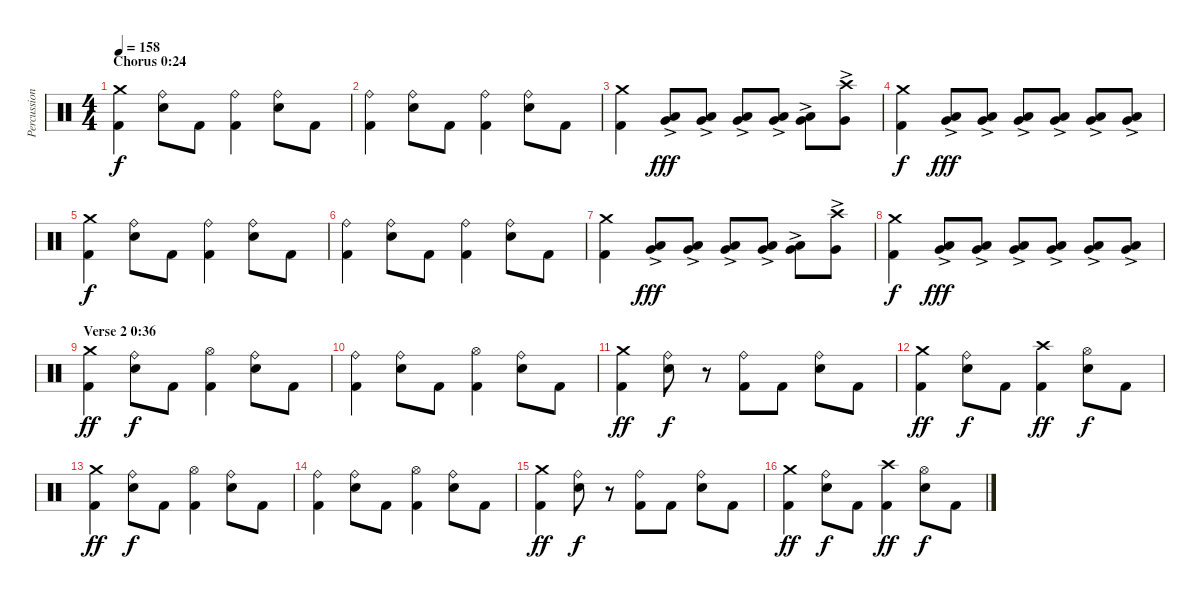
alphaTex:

\track ("Percussion" "Percussion") {instrument percussion}
\staff {score}
\articulation defaults
\ts (4 4)
\section ("" "Chorus 0:24")
\tempo 158
\clef neutral
\ks c
("Kick (hit) 2" "Crash medium (hit)").4{dy f} ("Electric Snare (hit)" "Ride (bell)").8 "Kick (hit) 2".8 ("Kick (hit) 2" "Ride (bell)").4 ("Electric Snare (hit)" "Ride (bell)").8 "Kick (hit) 2".8 |
("Kick (hit) 2" "Ride (bell)").4 ("Electric Snare (hit)" "Ride (bell)").8 "Kick (hit) 2".8 ("Kick (hit) 2" "Ride (bell)").4 ("Electric Snare (hit)" "Ride (bell)").8 "Kick (hit) 2".8 |
("Kick (hit) 2" "Crash medium (hit)").4 ("Low Tom (hit)"{ac} "Very Low Tom (hit)"{ac}).8{dy fff} ("Low Tom (hit)"{ac} "Very Low Tom (hit)"{ac}).8 ("Low Tom (hit)"{ac} "Very Low Tom (hit)"{ac}).8 ("Low Tom (hit)"{ac} "Very Low Tom (hit)"{ac}).8 ("Low Tom (hit)"{ac} "Very Low Tom (hit)"{ac}).8 ("Very Low Tom (hit)"{ac} "Crash high (hit)").8 |
("Kick (hit) 2" "Crash medium (hit)").4{dy f} ("Low Tom (hit)"{ac} "Very Low Tom (hit)"{ac}).8{dy fff} ("Low Tom (hit)"{ac} "Very Low Tom (hit)"{ac}).8 ("Low Tom (hit)"{ac} "Very Low Tom (hit)"{ac}).8 ("Low Tom (hit)"{ac} "Very Low Tom (hit)"{ac}).8 ("Low Tom (hit)"{ac} "Very Low Tom (hit)"{ac}).8 ("Low Tom (hit)"{ac} "Very Low Tom (hit)"{ac}).8 |
("Kick (hit) 2" "Crash medium (hit)").4{dy f} ("Electric Snare (hit)" "Ride (bell)").8 "Kick (hit) 2".8 ("Kick (hit) 2" "Ride (bell)").4 ("Electric Snare (hit)" "Ride (bell)").8 "Kick (hit) 2".8 |
("Kick (hit) 2" "Ride (bell)").4 ("Electric Snare (hit)" "Ride (bell)").8 "Kick (hit) 2".8 ("Kick (hit) 2" "Ride (bell)").4 ("Electric Snare (hit)" "Ride (bell)").8 "Kick (hit) 2".8 |
("Kick (hit) 2" "Crash medium (hit)").4 ("Low Tom (hit)"{ac} "Very Low Tom (hit)"{ac}).8{dy fff} ("Low Tom (hit)"{ac} "Very Low Tom (hit)"{ac}).8 ("Low Tom (hit)"{ac} "Very Low Tom (hit)"{ac}).8 ("Low Tom (hit)"{ac} "Very Low Tom (hit)"{ac}).8 ("Low Tom (hit)"{ac} "Very Low Tom (hit)"{ac}).8 ("Very Low Tom (hit)"{ac} "Crash high (hit)").8 |
("Kick (hit) 2" "Crash medium (hit)").4{dy f} ("Low Tom (hit)"{ac} "Very Low Tom (hit)"{ac}).8{dy fff} ("Low Tom (hit)"{ac} "Very Low Tom (hit)"{ac}).8 ("Low Tom (hit)"{ac} "Very Low Tom (hit)"{ac}).8 ("Low Tom (hit)"{ac} "Very Low Tom (hit)"{ac}).8 ("Low Tom (hit)"{ac} "Very Low Tom (hit)"{ac}).8 ("Low Tom (hit)"{ac} "Very Low Tom (hit)"{ac}).8 |
\section ("" "Verse 2 0:36")
("Kick (hit) 2" "Crash medium (hit)").4{dy ff} ("Electric Snare (hit)" "Ride (bell)").8{dy f} "Kick (hit) 2".8 ("Kick (hit) 2" "Hi-Hat (open)").4 ("Electric Snare (hit)" "Ride (bell)").8 "Kick (hit) 2".8 |
("Kick (hit) 2" "Ride (bell)").4 ("Electric Snare (hit)" "Ride (bell)").8 "Kick (hit) 2".8 ("Kick (hit) 2" "Hi-Hat (open)").4 ("Electric Snare (hit)" "Ride (bell)").8 "Kick (hit) 2".8 |
("Kick (hit) 2" "Crash medium (hit)").4{dy ff} ("Electric Snare (hit)" "Ride (bell)").8{dy f} r.8 ("Kick (hit) 2" "Ride (bell)").8 "Kick (hit) 2".8 ("Electric Snare (hit)" "Ride (bell)").8 "Kick (hit) 2".8 |
("Kick (hit) 2" "Crash medium (hit)").4{dy ff} ("Electric Snare (hit)" "Ride (bell)").8{dy f} "Kick (hit) 2".8 ("Kick (hit) 2" "Crash high (hit)").4{dy ff} ("Electric Snare (hit)" "Hi-Hat (open)").8{dy f} "Kick (hit) 2".8 |
("Kick (hit) 2" "Crash medium (hit)").4{dy ff} ("Electric Snare (hit)" "Ride (bell)").8{dy f} "Kick (hit) 2".8 ("Kick (hit) 2" "Hi-Hat (open)").4 ("Electric Snare (hit)" "Ride (bell)").8 "Kick (hit) 2".8 |
("Kick (hit) 2" "Ride (bell)").4 ("Electric Snare (hit)" "Ride (bell)").8 "Kick (hit) 2".8 ("Kick (hit) 2" "Hi-Hat (open)").4 ("Electric Snare (hit)" "Ride (bell)").8 "Kick (hit) 2".8 |
("Kick (hit) 2" "Crash medium (hit)").4{dy ff} ("Electric Snare (hit)" "Ride (bell)").8{dy f} r.8 ("Kick (hit) 2" "Ride (bell)").8 "Kick (hit) 2".8 ("Electric Snare (hit)" "Ride (bell)").8 "Kick (hit) 2".8 |
("Kick (hit) 2" "Crash medium (hit)").4{dy ff} ("Electric Snare (hit)" "Ride (bell)").8{dy f} "Kick (hit) 2".8 ("Kick (hit) 2" "Crash high (hit)").4{dy ff} ("Electric Snare (hit)" "Hi-Hat (open)").8{dy f} "Kick (hit) 2".8
